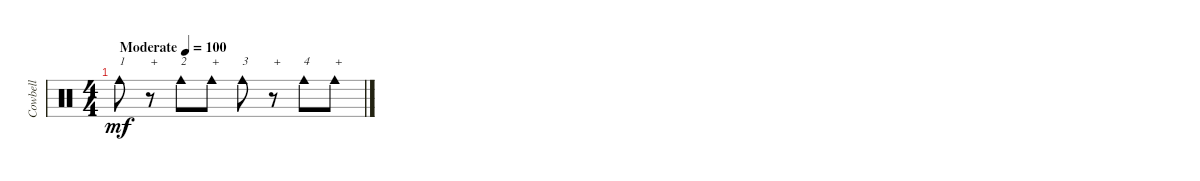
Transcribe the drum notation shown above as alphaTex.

\track ("Cowbell" "Cowbell") {instrument percussion}
\staff {score}
\articulation defaults
\ts (4 4)
\tempo (100 "Moderate")
\clef neutral
\ks c "Cowbell medium (hit)".8{txt "1" dy mf}
r.8{txt "+"} "Cowbell medium (hit)".8{txt "2"} "Cowbell medium (hit)".8{txt "+"} "Cowbell medium (hit)".8{txt "3"} r.8{txt "+"} "Cowbell medium (hit)".8{txt "4"} "Cowbell medium (hit)".8{txt "+"}
